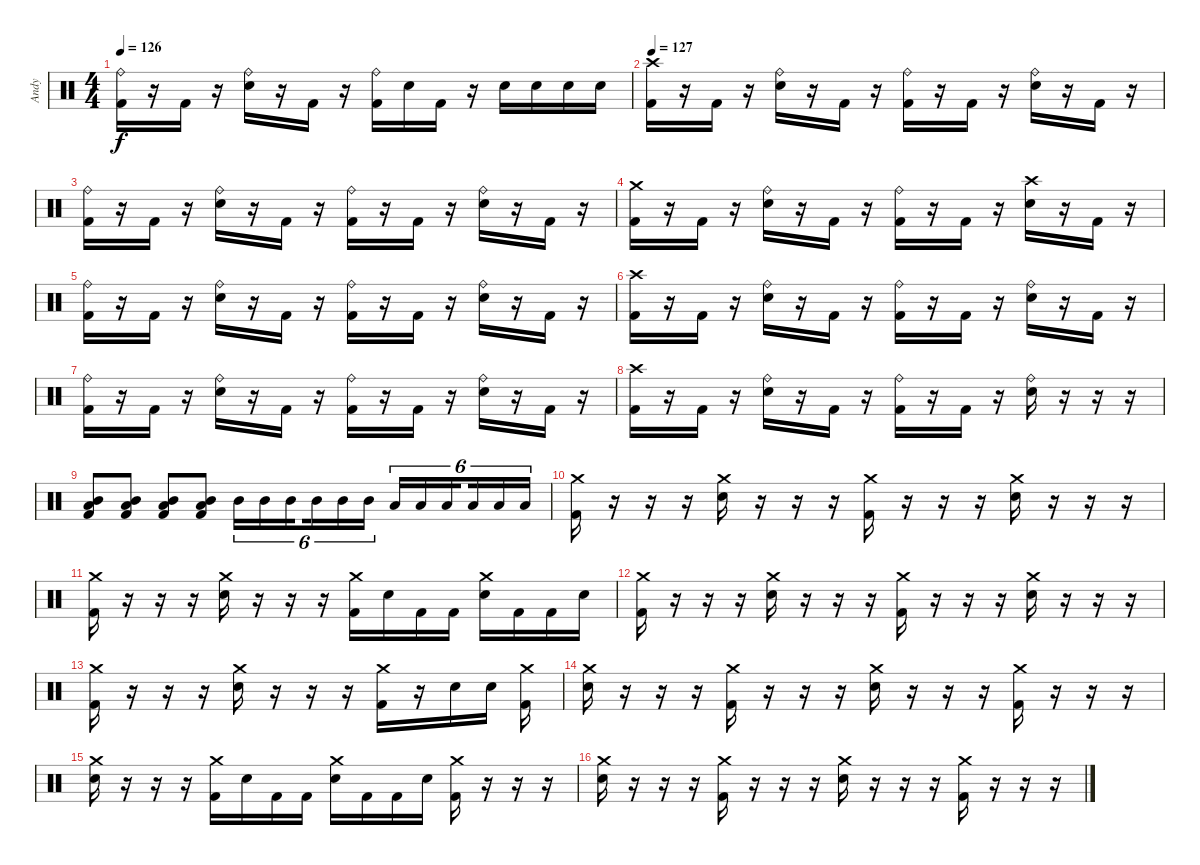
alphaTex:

\track ("Andy" "Andy") {instrument percussion}
\staff {score}
\articulation defaults
\ts (4 4)
\tempo 126
\clef neutral
\ks c
("Ride (bell)" "Kick (hit) 2").16{dy f} r.16 "Kick (hit) 2".16 r.16 ("Ride (bell)" "Electric Snare (hit)").16 r.16 "Kick (hit) 2".16 r.16 ("Ride (bell)" "Kick (hit) 2").16 "Electric Snare (hit)".16 "Kick (hit) 2".16 r.16 "Electric Snare (hit)".16 "Electric Snare (hit)".16 "Electric Snare (hit)".16 "Electric Snare (hit)".16 |
\tempo 127
("Crash high (hit)" "Kick (hit) 2").16 r.16 "Kick (hit) 2".16 r.16 ("Ride (bell)" "Electric Snare (hit)").16 r.16 "Kick (hit) 2".16 r.16 ("Ride (bell)" "Kick (hit) 2").16 r.16 "Kick (hit) 2".16 r.16 ("Ride (bell)" "Electric Snare (hit)").16 r.16 "Kick (hit) 2".16 r.16 |
("Ride (bell)" "Kick (hit) 2").16 r.16 "Kick (hit) 2".16 r.16 ("Ride (bell)" "Electric Snare (hit)").16 r.16 "Kick (hit) 2".16 r.16 ("Ride (bell)" "Kick (hit) 2").16 r.16 "Kick (hit) 2".16 r.16 ("Ride (bell)" "Electric Snare (hit)").16 r.16 "Kick (hit) 2".16 r.16 |
("Crash medium (hit)" "Kick (hit) 2").16 r.16 "Kick (hit) 2".16 r.16 ("Ride (bell)" "Electric Snare (hit)").16 r.16 "Kick (hit) 2".16 r.16 ("Ride (bell)" "Kick (hit) 2").16 r.16 "Kick (hit) 2".16 r.16 ("Crash high (hit)" "Electric Snare (hit)").16 r.16 "Kick (hit) 2".16 r.16 |
("Ride (bell)" "Kick (hit) 2").16 r.16 "Kick (hit) 2".16 r.16 ("Ride (bell)" "Electric Snare (hit)").16 r.16 "Kick (hit) 2".16 r.16 ("Ride (bell)" "Kick (hit) 2").16 r.16 "Kick (hit) 2".16 r.16 ("Ride (bell)" "Electric Snare (hit)").16 r.16 "Kick (hit) 2".16 r.16 |
("Crash high (hit)" "Kick (hit) 2").16 r.16 "Kick (hit) 2".16 r.16 ("Ride (bell)" "Electric Snare (hit)").16 r.16 "Kick (hit) 2".16 r.16 ("Ride (bell)" "Kick (hit) 2").16 r.16 "Kick (hit) 2".16 r.16 ("Ride (bell)" "Electric Snare (hit)").16 r.16 "Kick (hit) 2".16 r.16 |
("Ride (bell)" "Kick (hit) 2").16 r.16 "Kick (hit) 2".16 r.16 ("Ride (bell)" "Electric Snare (hit)").16 r.16 "Kick (hit) 2".16 r.16 ("Ride (bell)" "Kick (hit) 2").16 r.16 "Kick (hit) 2".16 r.16 ("Ride (bell)" "Electric Snare (hit)").16 r.16 "Kick (hit) 2".16 r.16 |
("Crash high (hit)" "Kick (hit) 2").16 r.16 "Kick (hit) 2".16 r.16 ("Ride (bell)" "Electric Snare (hit)").16 r.16 "Kick (hit) 2".16 r.16 ("Ride (bell)" "Kick (hit) 2").16 r.16 "Kick (hit) 2".16 r.16 ("Ride (bell)" "Electric Snare (hit)").16 r.16 r.16 r.16 |
("Mid Tom (hit)" "Low Tom (hit)" "Kick (hit) 2").8 ("Mid Tom (hit)" "Low Tom (hit)" "Kick (hit) 2").8 ("Mid Tom (hit)" "Low Tom (hit)" "Kick (hit) 2").8 ("Mid Tom (hit)" "Low Tom (hit)" "Kick (hit) 2").8 "Mid Tom (hit)".16{tu (6 4)} "Mid Tom (hit)".16{tu (6 4)} "Mid Tom (hit)".16{tu (6 4) beam splitsecondary} "Mid Tom (hit)".16{tu (6 4)} "Mid Tom (hit)".16{tu (6 4)} "Mid Tom (hit)".16{tu (6 4)} "Low Tom (hit)".16{tu (6 4)} "Low Tom (hit)".16{tu (6 4)} "Low Tom (hit)".16{tu (6 4) beam splitsecondary} "Low Tom (hit)".16{tu (6 4)} "Low Tom (hit)".16{tu (6 4)} "Low Tom (hit)".16{tu (6 4)} |
("Crash medium (hit)" "Kick (hit) 2").16 r.16 r.16 r.16 ("Crash medium (hit)" "Electric Snare (hit)").16 r.16 r.16 r.16 ("Crash medium (hit)" "Kick (hit) 2").16 r.16 r.16 r.16 ("Crash medium (hit)" "Electric Snare (hit)").16 r.16 r.16 r.16 |
("Crash medium (hit)" "Kick (hit) 2").16 r.16 r.16 r.16 ("Crash medium (hit)" "Electric Snare (hit)").16 r.16 r.16 r.16 ("Crash medium (hit)" "Kick (hit) 2").16 "Electric Snare (hit)".16 "Kick (hit) 2".16 "Kick (hit) 2".16 ("Crash medium (hit)" "Electric Snare (hit)").16 "Kick (hit) 2".16 "Kick (hit) 2".16 "Electric Snare (hit)".16 |
("Crash medium (hit)" "Kick (hit) 2").16 r.16 r.16 r.16 ("Crash medium (hit)" "Electric Snare (hit)").16 r.16 r.16 r.16 ("Crash medium (hit)" "Kick (hit) 2").16 r.16 r.16 r.16 ("Crash medium (hit)" "Electric Snare (hit)").16 r.16 r.16 r.16 |
("Crash medium (hit)" "Kick (hit) 2").16 r.16 r.16 r.16 ("Crash medium (hit)" "Electric Snare (hit)").16 r.16 r.16 r.16 ("Crash medium (hit)" "Kick (hit) 2").16 r.16 "Electric Snare (hit)".16 "Electric Snare (hit)".16 ("Crash medium (hit)" "Kick (hit) 2").16 |
("Crash medium (hit)" "Electric Snare (hit)").16 r.16 r.16 r.16 ("Crash medium (hit)" "Kick (hit) 2").16 r.16 r.16 r.16 ("Crash medium (hit)" "Electric Snare (hit)").16 r.16 r.16 r.16 ("Crash medium (hit)" "Kick (hit) 2").16 r.16 r.16 r.16 |
("Crash medium (hit)" "Electric Snare (hit)").16 r.16 r.16 r.16 ("Crash medium (hit)" "Kick (hit) 2").16 "Electric Snare (hit)".16 "Kick (hit) 2".16 "Kick (hit) 2".16 ("Crash medium (hit)" "Electric Snare (hit)").16 "Kick (hit) 2".16 "Kick (hit) 2".16 "Electric Snare (hit)".16 ("Crash medium (hit)" "Kick (hit) 2").16 r.16 r.16 r.16 |
("Crash medium (hit)" "Electric Snare (hit)").16 r.16 r.16 r.16 ("Crash medium (hit)" "Kick (hit) 2").16 r.16 r.16 r.16 ("Crash medium (hit)" "Electric Snare (hit)").16 r.16 r.16 r.16 ("Crash medium (hit)" "Kick (hit) 2").16 r.16 r.16 r.16
